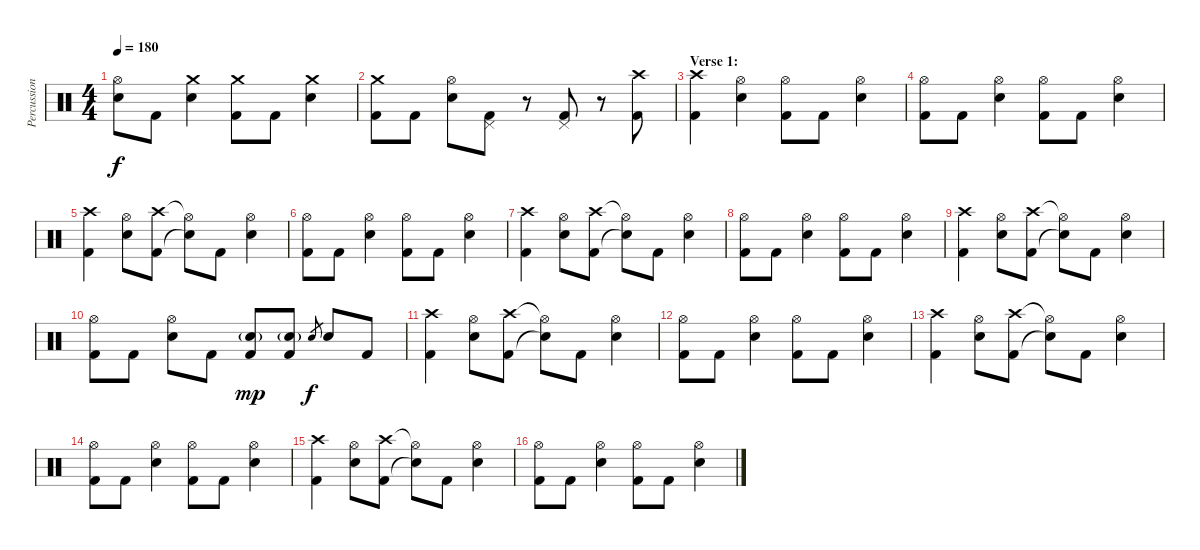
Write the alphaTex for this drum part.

\track ("Percussion" "Percussion") {instrument percussion}
\staff {score}
\articulation defaults
\ts (4 4)
\tempo 180
\clef neutral
\ks c
("Hi-Hat (open)"{t} "Snare (hit)"{t}).8{dy f} "Kick (hit) 2".8 ("Crash medium (hit)" "Snare (hit) 2").4 ("Crash medium (hit)" "Kick (hit) 2").8 "Kick (hit) 2".8 ("Crash medium (hit)" "Snare (hit) 2").4 |
("Crash medium (hit)" "Kick (hit) 2").8 "Kick (hit) 2".8 ("Hi-Hat (open)" "Snare (hit) 2").8 ("Pedal Hi-Hat (hit)" "Kick (hit) 2").8 r.8 ("Pedal Hi-Hat (hit)" "Kick (hit) 2").8 r.8 ("Crash high (hit)" "Kick (hit) 2").8 |
\section ("" "Verse 1:")
("Crash high (hit)" "Kick (hit) 2").4 ("Hi-Hat (open)" "Snare (hit) 2").4 ("Hi-Hat (open)" "Kick (hit) 2").8 "Kick (hit) 2".8 ("Hi-Hat (open)" "Snare (hit) 2").4 |
("Hi-Hat (open)" "Kick (hit) 2").8 "Kick (hit) 2".8 ("Hi-Hat (open)" "Snare (hit) 2").4 ("Hi-Hat (open)" "Kick (hit) 2").8 "Kick (hit) 2".8 ("Hi-Hat (open)" "Snare (hit) 2").4 |
("Crash high (hit)" "Kick (hit) 2").4 ("Hi-Hat (open)" "Snare (hit) 2").8 ("Crash high (hit)" "Kick (hit) 2").8 ("Hi-Hat (open)"{t} "Snare (hit)"{t}).8 "Kick (hit) 2".8 ("Hi-Hat (open)" "Snare (hit) 2").4 |
("Hi-Hat (open)" "Kick (hit) 2").8 "Kick (hit) 2".8 ("Hi-Hat (open)" "Snare (hit) 2").4 ("Hi-Hat (open)" "Kick (hit) 2").8 "Kick (hit) 2".8 ("Hi-Hat (open)" "Snare (hit) 2").4 |
("Crash high (hit)" "Kick (hit) 2").4 ("Hi-Hat (open)" "Snare (hit) 2").8 ("Crash high (hit)" "Kick (hit) 2").8 ("Hi-Hat (open)"{t} "Snare (hit)"{t}).8 "Kick (hit) 2".8 ("Hi-Hat (open)" "Snare (hit) 2").4 |
("Hi-Hat (open)" "Kick (hit) 2").8 "Kick (hit) 2".8 ("Hi-Hat (open)" "Snare (hit) 2").4 ("Hi-Hat (open)" "Kick (hit) 2").8 "Kick (hit) 2".8 ("Hi-Hat (open)" "Snare (hit) 2").4 |
("Crash high (hit)" "Kick (hit) 2").4 ("Hi-Hat (open)" "Snare (hit) 2").8 ("Crash high (hit)" "Kick (hit) 2").8 ("Hi-Hat (open)"{t} "Snare (hit)"{t}).8 "Kick (hit) 2".8 ("Hi-Hat (open)" "Snare (hit) 2").4 |
("Hi-Hat (open)" "Kick (hit) 2").8 "Kick (hit) 2".8 ("Hi-Hat (open)" "Snare (hit) 2").8 "Kick (hit) 2".8 ("Snare (hit) 2"{g} "Kick (hit) 2").8{dy mp} ("Snare (hit) 2"{g} "Kick (hit) 2").8 "Snare (hit) 2".8{gr dy f} "Snare (hit) 2".8 "Kick (hit) 2".8 |
("Crash high (hit)" "Kick (hit) 2").4 ("Hi-Hat (open)" "Snare (hit) 2").8 ("Crash high (hit)" "Kick (hit) 2").8 ("Hi-Hat (open)"{t} "Snare (hit)"{t}).8 "Kick (hit) 2".8 ("Hi-Hat (open)" "Snare (hit) 2").4 |
("Hi-Hat (open)" "Kick (hit) 2").8 "Kick (hit) 2".8 ("Hi-Hat (open)" "Snare (hit) 2").4 ("Hi-Hat (open)" "Kick (hit) 2").8 "Kick (hit) 2".8 ("Hi-Hat (open)" "Snare (hit) 2").4 |
("Crash high (hit)" "Kick (hit) 2").4 ("Hi-Hat (open)" "Snare (hit) 2").8 ("Crash high (hit)" "Kick (hit) 2").8 ("Hi-Hat (open)"{t} "Snare (hit)"{t}).8 "Kick (hit) 2".8 ("Hi-Hat (open)" "Snare (hit) 2").4 |
("Hi-Hat (open)" "Kick (hit) 2").8 "Kick (hit) 2".8 ("Hi-Hat (open)" "Snare (hit) 2").4 ("Hi-Hat (open)" "Kick (hit) 2").8 "Kick (hit) 2".8 ("Hi-Hat (open)" "Snare (hit) 2").4 |
("Crash high (hit)" "Kick (hit) 2").4 ("Hi-Hat (open)" "Snare (hit) 2").8 ("Crash high (hit)" "Kick (hit) 2").8 ("Hi-Hat (open)"{t} "Snare (hit)"{t}).8 "Kick (hit) 2".8 ("Hi-Hat (open)" "Snare (hit) 2").4 |
("Hi-Hat (open)" "Kick (hit) 2").8 "Kick (hit) 2".8 ("Hi-Hat (open)" "Snare (hit) 2").4 ("Hi-Hat (open)" "Kick (hit) 2").8 "Kick (hit) 2".8 ("Hi-Hat (open)" "Snare (hit) 2").4
